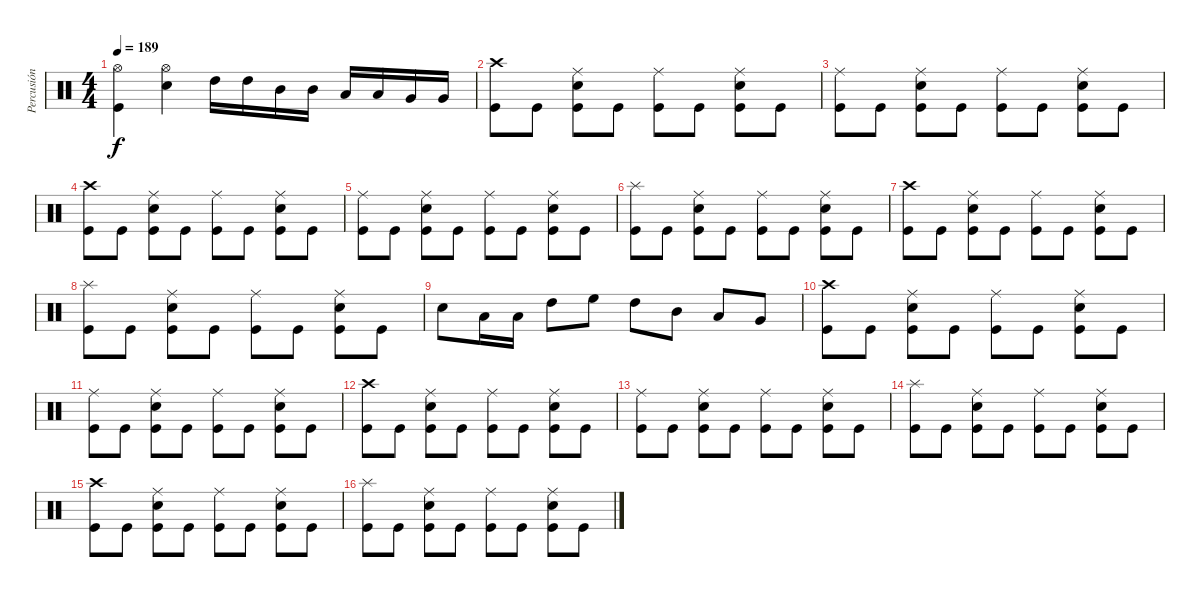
\track ("Percusión" "Percusión") {instrument percussion}
\staff {score}
\articulation defaults
\ts (4 4)
\tempo 189
\clef neutral
\ks c
("Hi-Hat (open)" "Kick (hit)").4{dy f} ("Hi-Hat (open)" "Electric Snare (hit)").4 "High Tom (hit)".16 "High Tom (hit)".16 "Mid Tom (hit)".16 "Mid Tom (hit)".16 "Low Tom (hit)".16 "Low Tom (hit)".16 "Very Low Tom (hit)".16 "Very Low Tom (hit)".16 |
("Crash high (hit)" "Kick (hit)").8 "Kick (hit)".8 ("Ride (middle)" "Electric Snare (hit)" "Kick (hit)").8 "Kick (hit)".8 ("Ride (middle)" "Kick (hit)").8 "Kick (hit)".8 ("Ride (middle)" "Electric Snare (hit)" "Kick (hit)").8 "Kick (hit)".8 |
("Ride (middle)" "Kick (hit)").8 "Kick (hit)".8 ("Ride (middle)" "Electric Snare (hit)" "Kick (hit)").8 "Kick (hit)".8 ("Ride (middle)" "Kick (hit)").8 "Kick (hit)".8 ("Ride (middle)" "Electric Snare (hit)" "Kick (hit)").8 "Kick (hit)".8 |
("Crash high (hit)" "Kick (hit)").8 "Kick (hit)".8 ("Ride (middle)" "Electric Snare (hit)" "Kick (hit)").8 "Kick (hit)".8 ("Ride (middle)" "Kick (hit)").8 "Kick (hit)".8 ("Ride (middle)" "Electric Snare (hit)" "Kick (hit)").8 "Kick (hit)".8 |
("Ride (middle)" "Kick (hit)").8 "Kick (hit)".8 ("Ride (middle)" "Electric Snare (hit)" "Kick (hit)").8 "Kick (hit)".8 ("Ride (middle)" "Kick (hit)").8 "Kick (hit)".8 ("Ride (middle)" "Electric Snare (hit)" "Kick (hit)").8 "Kick (hit)".8 |
("Splash (hit)" "Kick (hit)").8 "Kick (hit)".8 ("Ride (middle)" "Electric Snare (hit)" "Kick (hit)").8 "Kick (hit)".8 ("Ride (middle)" "Kick (hit)").8 "Kick (hit)".8 ("Ride (middle)" "Electric Snare (hit)" "Kick (hit)").8 "Kick (hit)".8 |
("Crash high (hit)" "Kick (hit)").8 "Kick (hit)".8 ("Ride (middle)" "Electric Snare (hit)" "Kick (hit)").8 "Kick (hit)".8 ("Ride (middle)" "Kick (hit)").8 "Kick (hit)".8 ("Ride (middle)" "Electric Snare (hit)" "Kick (hit)").8 "Kick (hit)".8 |
("Splash (hit)" "Kick (hit)").8 "Kick (hit)".8 ("Ride (middle)" "Electric Snare (hit)" "Kick (hit)").8 "Kick (hit)".8 ("Ride (middle)" "Kick (hit)").8 "Kick (hit)".8 ("Ride (middle)" "Electric Snare (hit)" "Kick (hit)").8 "Kick (hit)".8 |
"Electric Snare (hit)".8 "Low Tom (hit)".16 "Low Tom (hit)".16 "High Tom (hit)".8 "High Floor Tom (hit)".8 "High Tom (hit)".8 "Mid Tom (hit)".8 "Low Tom (hit)".8 "Very Low Tom (hit)".8 |
("Crash high (hit)" "Kick (hit)").8 "Kick (hit)".8 ("Ride (middle)" "Electric Snare (hit)" "Kick (hit)").8 "Kick (hit)".8 ("Ride (middle)" "Kick (hit)").8 "Kick (hit)".8 ("Ride (middle)" "Electric Snare (hit)" "Kick (hit)").8 "Kick (hit)".8 |
("Ride (middle)" "Kick (hit)").8 "Kick (hit)".8 ("Ride (middle)" "Electric Snare (hit)" "Kick (hit)").8 "Kick (hit)".8 ("Ride (middle)" "Kick (hit)").8 "Kick (hit)".8 ("Ride (middle)" "Electric Snare (hit)" "Kick (hit)").8 "Kick (hit)".8 |
("Crash high (hit)" "Kick (hit)").8 "Kick (hit)".8 ("Ride (middle)" "Electric Snare (hit)" "Kick (hit)").8 "Kick (hit)".8 ("Ride (middle)" "Kick (hit)").8 "Kick (hit)".8 ("Ride (middle)" "Electric Snare (hit)" "Kick (hit)").8 "Kick (hit)".8 |
("Ride (middle)" "Kick (hit)").8 "Kick (hit)".8 ("Ride (middle)" "Electric Snare (hit)" "Kick (hit)").8 "Kick (hit)".8 ("Ride (middle)" "Kick (hit)").8 "Kick (hit)".8 ("Ride (middle)" "Electric Snare (hit)" "Kick (hit)").8 "Kick (hit)".8 |
("Splash (hit)" "Kick (hit)").8 "Kick (hit)".8 ("Ride (middle)" "Electric Snare (hit)" "Kick (hit)").8 "Kick (hit)".8 ("Ride (middle)" "Kick (hit)").8 "Kick (hit)".8 ("Ride (middle)" "Electric Snare (hit)" "Kick (hit)").8 "Kick (hit)".8 |
("Crash high (hit)" "Kick (hit)").8 "Kick (hit)".8 ("Ride (middle)" "Electric Snare (hit)" "Kick (hit)").8 "Kick (hit)".8 ("Ride (middle)" "Kick (hit)").8 "Kick (hit)".8 ("Ride (middle)" "Electric Snare (hit)" "Kick (hit)").8 "Kick (hit)".8 |
("Splash (hit)" "Kick (hit)").8 "Kick (hit)".8 ("Ride (middle)" "Electric Snare (hit)" "Kick (hit)").8 "Kick (hit)".8 ("Ride (middle)" "Kick (hit)").8 "Kick (hit)".8 ("Ride (middle)" "Electric Snare (hit)" "Kick (hit)").8 "Kick (hit)".8
